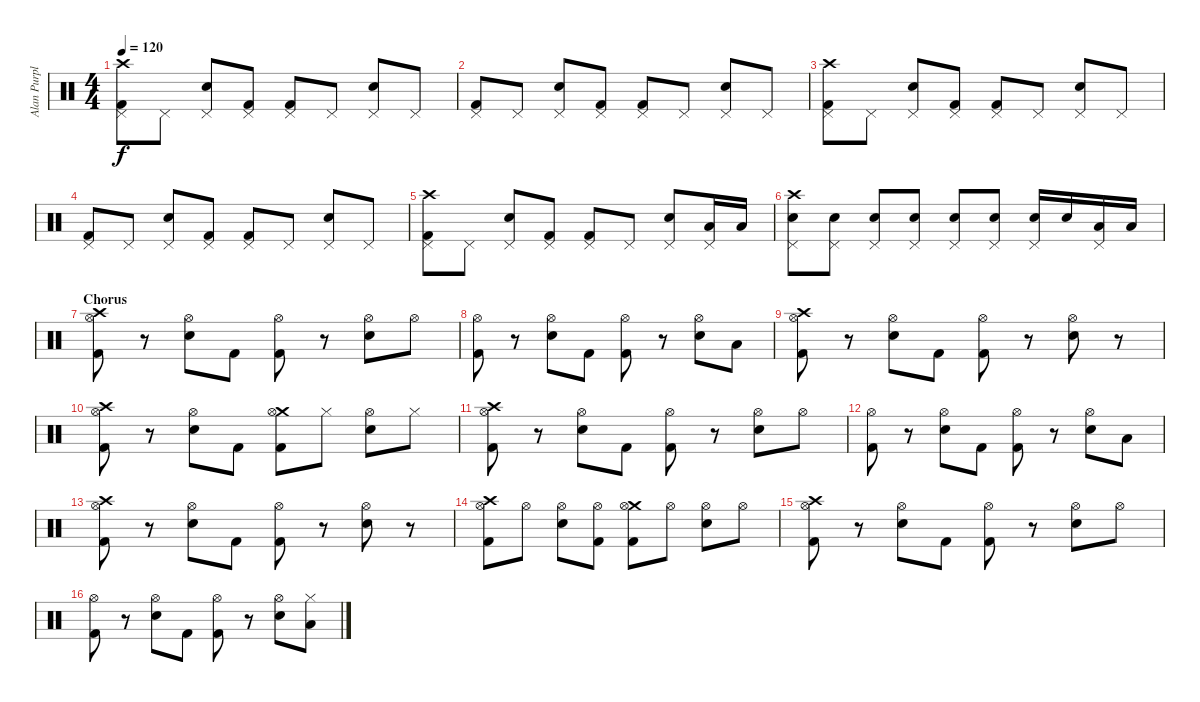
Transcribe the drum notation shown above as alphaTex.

\track ("Alan Purple" "Alan Purpl") {instrument percussion}
\staff {score}
\articulation defaults
\ts (4 4)
\tempo 120
\clef neutral
\ks c
("Crash high (hit)" "Pedal Hi-Hat (hit)" "Kick (hit) 2").8{dy f} "Pedal Hi-Hat (hit)".8 ("Pedal Hi-Hat (hit)" "Snare (hit) 2").8 ("Pedal Hi-Hat (hit)" "Kick (hit) 2").8 ("Pedal Hi-Hat (hit)" "Kick (hit) 2").8 "Pedal Hi-Hat (hit)".8 ("Pedal Hi-Hat (hit)" "Snare (hit) 2").8 "Pedal Hi-Hat (hit)".8 |
("Pedal Hi-Hat (hit)" "Kick (hit) 2").8 "Pedal Hi-Hat (hit)".8 ("Pedal Hi-Hat (hit)" "Snare (hit) 2").8 ("Pedal Hi-Hat (hit)" "Kick (hit) 2").8 ("Pedal Hi-Hat (hit)" "Kick (hit) 2").8 "Pedal Hi-Hat (hit)".8 ("Pedal Hi-Hat (hit)" "Snare (hit) 2").8 "Pedal Hi-Hat (hit)".8 |
("Crash high (hit)" "Pedal Hi-Hat (hit)" "Kick (hit) 2").8 "Pedal Hi-Hat (hit)".8 ("Pedal Hi-Hat (hit)" "Snare (hit) 2").8 ("Pedal Hi-Hat (hit)" "Kick (hit) 2").8 ("Pedal Hi-Hat (hit)" "Kick (hit) 2").8 "Pedal Hi-Hat (hit)".8 ("Pedal Hi-Hat (hit)" "Snare (hit) 2").8 "Pedal Hi-Hat (hit)".8 |
("Pedal Hi-Hat (hit)" "Kick (hit) 2").8 "Pedal Hi-Hat (hit)".8 ("Pedal Hi-Hat (hit)" "Snare (hit) 2").8 ("Pedal Hi-Hat (hit)" "Kick (hit) 2").8 ("Pedal Hi-Hat (hit)" "Kick (hit) 2").8 "Pedal Hi-Hat (hit)".8 ("Pedal Hi-Hat (hit)" "Snare (hit) 2").8 "Pedal Hi-Hat (hit)".8 |
("Crash high (hit)" "Pedal Hi-Hat (hit)" "Kick (hit) 2").8 "Pedal Hi-Hat (hit)".8 ("Pedal Hi-Hat (hit)" "Snare (hit) 2").8 ("Pedal Hi-Hat (hit)" "Kick (hit) 2").8 ("Pedal Hi-Hat (hit)" "Kick (hit) 2").8 "Pedal Hi-Hat (hit)".8 ("Pedal Hi-Hat (hit)" "Snare (hit) 2").8 ("Pedal Hi-Hat (hit)" "Low Tom (hit)").16 "Low Tom (hit)".16 |
("Crash high (hit)" "Pedal Hi-Hat (hit)" "Snare (hit) 2").8 ("Pedal Hi-Hat (hit)" "Snare (hit) 2").8 ("Pedal Hi-Hat (hit)" "Snare (hit) 2").8 ("Pedal Hi-Hat (hit)" "Snare (hit) 2").8 ("Pedal Hi-Hat (hit)" "Snare (hit) 2").8 ("Pedal Hi-Hat (hit)" "Snare (hit) 2").8 ("Pedal Hi-Hat (hit)" "Electric Snare (hit)").16 "Electric Snare (hit)".16 ("Pedal Hi-Hat (hit)" "Low Tom (hit)").16 "Low Tom (hit)".16 |
\section ("" "Chorus")
("Crash high (hit)" "Hi-Hat (open)" "Kick (hit) 2").8 r.8 ("Hi-Hat (open)" "Snare (hit) 2").8 "Kick (hit) 2".8 ("Hi-Hat (open)" "Kick (hit) 2").8 r.8 ("Hi-Hat (open)" "Snare (hit) 2").8 "Hi-Hat (open)".8 |
("Hi-Hat (open)" "Kick (hit) 2").8 r.8 ("Hi-Hat (open)" "Snare (hit) 2").8 "Kick (hit) 2".8 ("Hi-Hat (open)" "Kick (hit) 2").8 r.8 ("Hi-Hat (open)" "Snare (hit) 2").8 "Low Tom (hit)".8 |
("Crash high (hit)" "Hi-Hat (open)" "Kick (hit) 2").8 r.8 ("Hi-Hat (open)" "Snare (hit) 2").8 "Kick (hit) 2".8 ("Hi-Hat (open)" "Kick (hit) 2").8 r.8 ("Hi-Hat (open)" "Snare (hit) 2").8 r.8 |
("Crash high (hit)" "Hi-Hat (open)" "Kick (hit) 2").8 r.8 ("Hi-Hat (open)" "Snare (hit) 2").8 "Kick (hit) 2".8 ("Crash medium (hit)" "Hi-Hat (open)" "Kick (hit) 2").8 "Hi-Hat (closed)".8 ("Hi-Hat (open)" "Snare (hit) 2").8 "Hi-Hat (closed)".8 |
("Crash high (hit)" "Hi-Hat (open)" "Kick (hit) 2").8 r.8 ("Hi-Hat (open)" "Snare (hit) 2").8 "Kick (hit) 2".8 ("Hi-Hat (open)" "Kick (hit) 2").8 r.8 ("Hi-Hat (open)" "Snare (hit) 2").8 "Hi-Hat (open)".8 |
("Hi-Hat (open)" "Kick (hit) 2").8 r.8 ("Hi-Hat (open)" "Snare (hit) 2").8 "Kick (hit) 2".8 ("Hi-Hat (open)" "Kick (hit) 2").8 r.8 ("Hi-Hat (open)" "Snare (hit) 2").8 "Low Tom (hit)".8 |
("Crash high (hit)" "Hi-Hat (open)" "Kick (hit) 2").8 r.8 ("Hi-Hat (open)" "Snare (hit) 2").8 "Kick (hit) 2".8 ("Hi-Hat (open)" "Kick (hit) 2").8 r.8 ("Hi-Hat (open)" "Snare (hit) 2").8 r.8 |
("Crash high (hit)" "Hi-Hat (open)" "Kick (hit) 2").8 "Hi-Hat (open)".8 ("Hi-Hat (open)" "Snare (hit) 2").8 ("Hi-Hat (open)" "Kick (hit) 2").8 ("Crash medium (hit)" "Hi-Hat (open)" "Kick (hit) 2").8 "Hi-Hat (open)".8 ("Hi-Hat (open)" "Snare (hit) 2").8 "Hi-Hat (open)".8 |
("Crash high (hit)" "Hi-Hat (open)" "Kick (hit) 2").8 r.8 ("Hi-Hat (open)" "Snare (hit) 2").8 "Kick (hit) 2".8 ("Hi-Hat (open)" "Kick (hit) 2").8 r.8 ("Hi-Hat (open)" "Snare (hit) 2").8 "Hi-Hat (open)".8 |
("Hi-Hat (open)" "Kick (hit) 2").8 r.8 ("Hi-Hat (open)" "Snare (hit) 2").8 "Kick (hit) 2".8 ("Hi-Hat (open)" "Kick (hit) 2").8 r.8 ("Hi-Hat (open)" "Snare (hit) 2").8 ("Hi-Hat (closed)" "Low Tom (hit)").8
